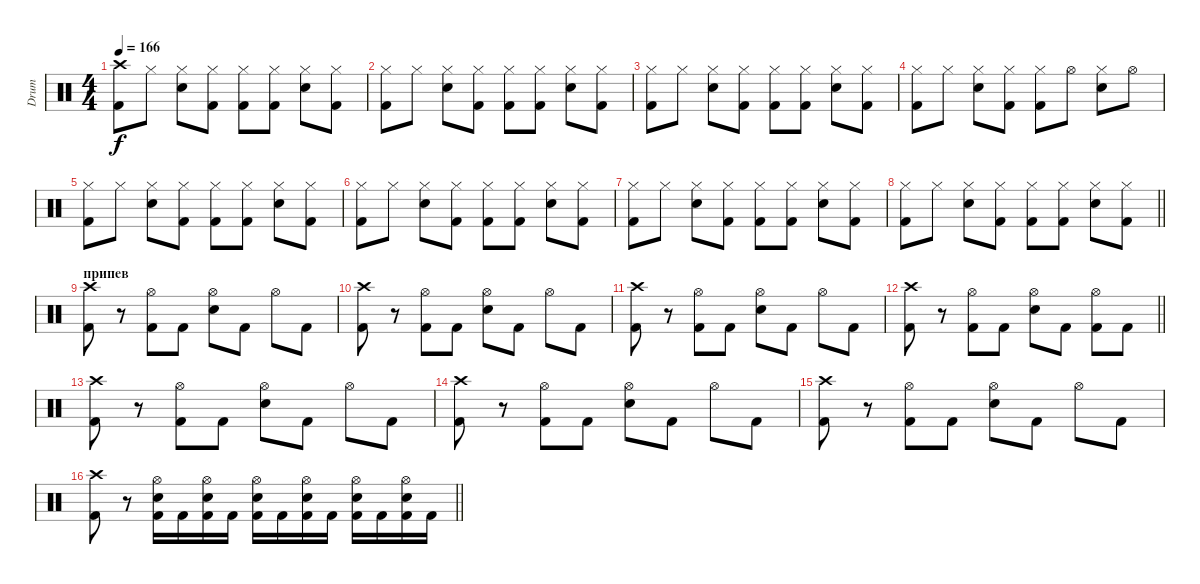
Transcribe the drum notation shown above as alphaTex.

\track ("Drum" "Drum") {instrument percussion}
\staff {score}
\articulation defaults
\ts (4 4)
\section ("" "")
\tempo 166
\clef neutral
\ks c
("Crash high (hit)" "Kick (hit) 2").8{dy f} "Hi-Hat (closed)".8 ("Hi-Hat (closed)" "Snare (hit) 2").8 ("Hi-Hat (closed)" "Kick (hit) 2").8 ("Hi-Hat (closed)" "Kick (hit) 2").8 ("Hi-Hat (closed)" "Kick (hit) 2").8 ("Hi-Hat (closed)" "Snare (hit) 2").8 ("Hi-Hat (closed)" "Kick (hit) 2").8 |
("Hi-Hat (closed)" "Kick (hit) 2").8 "Hi-Hat (closed)".8 ("Hi-Hat (closed)" "Snare (hit) 2").8 ("Hi-Hat (closed)" "Kick (hit) 2").8 ("Hi-Hat (closed)" "Kick (hit) 2").8 ("Hi-Hat (closed)" "Kick (hit) 2").8 ("Hi-Hat (closed)" "Snare (hit) 2").8 ("Hi-Hat (closed)" "Kick (hit) 2").8 |
("Hi-Hat (closed)" "Kick (hit) 2").8 "Hi-Hat (closed)".8 ("Hi-Hat (closed)" "Snare (hit) 2").8 ("Hi-Hat (closed)" "Kick (hit) 2").8 ("Hi-Hat (closed)" "Kick (hit) 2").8 ("Hi-Hat (closed)" "Kick (hit) 2").8 ("Hi-Hat (closed)" "Snare (hit) 2").8 ("Hi-Hat (closed)" "Kick (hit) 2").8 |
("Hi-Hat (closed)" "Kick (hit) 2").8 "Hi-Hat (closed)".8 ("Hi-Hat (closed)" "Snare (hit) 2").8 ("Hi-Hat (closed)" "Kick (hit) 2").8 ("Hi-Hat (closed)" "Kick (hit) 2").8 "Hi-Hat (open)".8 ("Hi-Hat (closed)" "Snare (hit) 2").8 "Hi-Hat (open)".8 |
("Hi-Hat (closed)" "Kick (hit) 2").8 "Hi-Hat (closed)".8 ("Hi-Hat (closed)" "Snare (hit) 2").8 ("Hi-Hat (closed)" "Kick (hit) 2").8 ("Hi-Hat (closed)" "Kick (hit) 2").8 ("Hi-Hat (closed)" "Kick (hit) 2").8 ("Hi-Hat (closed)" "Snare (hit) 2").8 ("Hi-Hat (closed)" "Kick (hit) 2").8 |
("Hi-Hat (closed)" "Kick (hit) 2").8 "Hi-Hat (closed)".8 ("Hi-Hat (closed)" "Snare (hit) 2").8 ("Hi-Hat (closed)" "Kick (hit) 2").8 ("Hi-Hat (closed)" "Kick (hit) 2").8 ("Hi-Hat (closed)" "Kick (hit) 2").8 ("Hi-Hat (closed)" "Snare (hit) 2").8 ("Hi-Hat (closed)" "Kick (hit) 2").8 |
("Hi-Hat (closed)" "Kick (hit) 2").8 "Hi-Hat (closed)".8 ("Hi-Hat (closed)" "Snare (hit) 2").8 ("Hi-Hat (closed)" "Kick (hit) 2").8 ("Hi-Hat (closed)" "Kick (hit) 2").8 ("Hi-Hat (closed)" "Kick (hit) 2").8 ("Hi-Hat (closed)" "Snare (hit) 2").8 ("Hi-Hat (closed)" "Kick (hit) 2").8 |
\barLineRight lightlight
("Hi-Hat (closed)" "Kick (hit) 2").8 "Hi-Hat (closed)".8 ("Hi-Hat (closed)" "Snare (hit) 2").8 ("Hi-Hat (closed)" "Kick (hit) 2").8 ("Hi-Hat (closed)" "Kick (hit) 2").8 ("Hi-Hat (closed)" "Kick (hit) 2").8 ("Hi-Hat (closed)" "Snare (hit) 2").8 ("Hi-Hat (closed)" "Kick (hit) 2").8 |
\section ("" "припев")
("Crash high (hit)" "Kick (hit) 2").8 r.8 ("Hi-Hat (open)" "Kick (hit) 2").8 "Kick (hit) 2".8 ("Hi-Hat (open)" "Snare (hit) 2").8 "Kick (hit) 2".8 "Hi-Hat (open)".8 "Kick (hit) 2".8 |
("Crash high (hit)" "Kick (hit) 2").8 r.8 ("Hi-Hat (open)" "Kick (hit) 2").8 "Kick (hit) 2".8 ("Hi-Hat (open)" "Snare (hit) 2").8 "Kick (hit) 2".8 "Hi-Hat (open)".8 "Kick (hit) 2".8 |
("Crash high (hit)" "Kick (hit) 2").8 r.8 ("Hi-Hat (open)" "Kick (hit) 2").8 "Kick (hit) 2".8 ("Hi-Hat (open)" "Snare (hit) 2").8 "Kick (hit) 2".8 "Hi-Hat (open)".8 "Kick (hit) 2".8 |
\barLineRight lightlight
("Crash high (hit)" "Kick (hit) 2").8 r.8 ("Hi-Hat (open)" "Kick (hit) 2").8 "Kick (hit) 2".8 ("Hi-Hat (open)" "Snare (hit) 2").8 "Kick (hit) 2".8 ("Hi-Hat (open)" "Kick (hit) 2").8 "Kick (hit) 2".8 |
("Crash high (hit)" "Kick (hit) 2").8 r.8 ("Hi-Hat (open)" "Kick (hit) 2").8 "Kick (hit) 2".8 ("Hi-Hat (open)" "Snare (hit) 2").8 "Kick (hit) 2".8 "Hi-Hat (open)".8 "Kick (hit) 2".8 |
("Crash high (hit)" "Kick (hit) 2").8 r.8 ("Hi-Hat (open)" "Kick (hit) 2").8 "Kick (hit) 2".8 ("Hi-Hat (open)" "Snare (hit) 2").8 "Kick (hit) 2".8 "Hi-Hat (open)".8 "Kick (hit) 2".8 |
("Crash high (hit)" "Kick (hit) 2").8 r.8 ("Hi-Hat (open)" "Kick (hit) 2").8 "Kick (hit) 2".8 ("Hi-Hat (open)" "Snare (hit) 2").8 "Kick (hit) 2".8 "Hi-Hat (open)".8 "Kick (hit) 2".8 |
\barLineRight lightlight
("Crash high (hit)" "Kick (hit) 2").8 r.8 ("Hi-Hat (open)" "Snare (hit) 2" "Kick (hit) 2").16 "Kick (hit) 2".16 ("Hi-Hat (open)" "Snare (hit) 2" "Kick (hit) 2").16 "Kick (hit) 2".16 ("Hi-Hat (open)" "Snare (hit) 2" "Kick (hit) 2").16 "Kick (hit) 2".16 ("Hi-Hat (open)" "Snare (hit) 2" "Kick (hit) 2").16 "Kick (hit) 2".16 ("Hi-Hat (open)" "Snare (hit) 2" "Kick (hit) 2").16 "Kick (hit) 2".16 ("Hi-Hat (open)" "Snare (hit) 2" "Kick (hit) 2").16 "Kick (hit) 2".16
